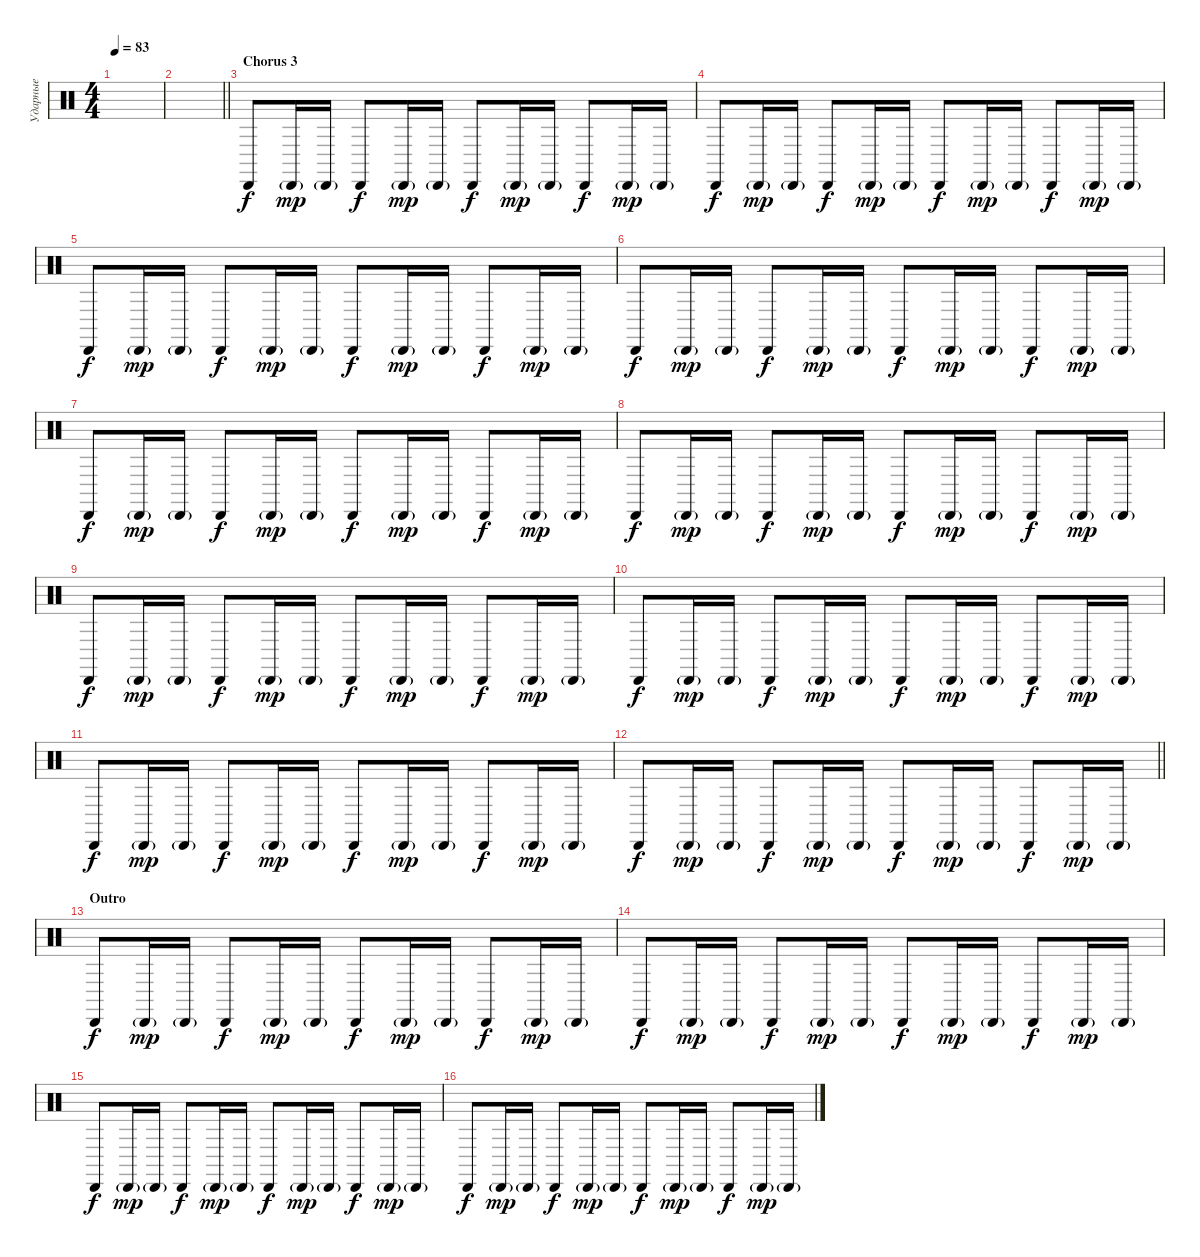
\track ("Ударные" "Ударные") {instrument percussion}
\staff {score}
\articulation defaults
\ts (4 4)
\tempo 83
\clef neutral
\ks c
|
\barLineRight lightlight
|
\section ("" "Chorus 3")
"Cabasa (hit)".8{dy f} "Cabasa (hit)"{g}.16{dy mp} "Cabasa (hit)"{g}.16 "Cabasa (hit)".8{dy f} "Cabasa (hit)"{g}.16{dy mp} "Cabasa (hit)"{g}.16 "Cabasa (hit)".8{dy f} "Cabasa (hit)"{g}.16{dy mp} "Cabasa (hit)"{g}.16 "Cabasa (hit)".8{dy f} "Cabasa (hit)"{g}.16{dy mp} "Cabasa (hit)"{g}.16 |
"Cabasa (hit)".8{dy f} "Cabasa (hit)"{g}.16{dy mp} "Cabasa (hit)"{g}.16 "Cabasa (hit)".8{dy f} "Cabasa (hit)"{g}.16{dy mp} "Cabasa (hit)"{g}.16 "Cabasa (hit)".8{dy f} "Cabasa (hit)"{g}.16{dy mp} "Cabasa (hit)"{g}.16 "Cabasa (hit)".8{dy f} "Cabasa (hit)"{g}.16{dy mp} "Cabasa (hit)"{g}.16 |
"Cabasa (hit)".8{dy f} "Cabasa (hit)"{g}.16{dy mp} "Cabasa (hit)"{g}.16 "Cabasa (hit)".8{dy f} "Cabasa (hit)"{g}.16{dy mp} "Cabasa (hit)"{g}.16 "Cabasa (hit)".8{dy f} "Cabasa (hit)"{g}.16{dy mp} "Cabasa (hit)"{g}.16 "Cabasa (hit)".8{dy f} "Cabasa (hit)"{g}.16{dy mp} "Cabasa (hit)"{g}.16 |
"Cabasa (hit)".8{dy f} "Cabasa (hit)"{g}.16{dy mp} "Cabasa (hit)"{g}.16 "Cabasa (hit)".8{dy f} "Cabasa (hit)"{g}.16{dy mp} "Cabasa (hit)"{g}.16 "Cabasa (hit)".8{dy f} "Cabasa (hit)"{g}.16{dy mp} "Cabasa (hit)"{g}.16 "Cabasa (hit)".8{dy f} "Cabasa (hit)"{g}.16{dy mp} "Cabasa (hit)"{g}.16 |
"Cabasa (hit)".8{dy f} "Cabasa (hit)"{g}.16{dy mp} "Cabasa (hit)"{g}.16 "Cabasa (hit)".8{dy f} "Cabasa (hit)"{g}.16{dy mp} "Cabasa (hit)"{g}.16 "Cabasa (hit)".8{dy f} "Cabasa (hit)"{g}.16{dy mp} "Cabasa (hit)"{g}.16 "Cabasa (hit)".8{dy f} "Cabasa (hit)"{g}.16{dy mp} "Cabasa (hit)"{g}.16 |
"Cabasa (hit)".8{dy f} "Cabasa (hit)"{g}.16{dy mp} "Cabasa (hit)"{g}.16 "Cabasa (hit)".8{dy f} "Cabasa (hit)"{g}.16{dy mp} "Cabasa (hit)"{g}.16 "Cabasa (hit)".8{dy f} "Cabasa (hit)"{g}.16{dy mp} "Cabasa (hit)"{g}.16 "Cabasa (hit)".8{dy f} "Cabasa (hit)"{g}.16{dy mp} "Cabasa (hit)"{g}.16 |
"Cabasa (hit)".8{dy f} "Cabasa (hit)"{g}.16{dy mp} "Cabasa (hit)"{g}.16 "Cabasa (hit)".8{dy f} "Cabasa (hit)"{g}.16{dy mp} "Cabasa (hit)"{g}.16 "Cabasa (hit)".8{dy f} "Cabasa (hit)"{g}.16{dy mp} "Cabasa (hit)"{g}.16 "Cabasa (hit)".8{dy f} "Cabasa (hit)"{g}.16{dy mp} "Cabasa (hit)"{g}.16 |
"Cabasa (hit)".8{dy f} "Cabasa (hit)"{g}.16{dy mp} "Cabasa (hit)"{g}.16 "Cabasa (hit)".8{dy f} "Cabasa (hit)"{g}.16{dy mp} "Cabasa (hit)"{g}.16 "Cabasa (hit)".8{dy f} "Cabasa (hit)"{g}.16{dy mp} "Cabasa (hit)"{g}.16 "Cabasa (hit)".8{dy f} "Cabasa (hit)"{g}.16{dy mp} "Cabasa (hit)"{g}.16 |
"Cabasa (hit)".8{dy f} "Cabasa (hit)"{g}.16{dy mp} "Cabasa (hit)"{g}.16 "Cabasa (hit)".8{dy f} "Cabasa (hit)"{g}.16{dy mp} "Cabasa (hit)"{g}.16 "Cabasa (hit)".8{dy f} "Cabasa (hit)"{g}.16{dy mp} "Cabasa (hit)"{g}.16 "Cabasa (hit)".8{dy f} "Cabasa (hit)"{g}.16{dy mp} "Cabasa (hit)"{g}.16 |
\barLineRight lightlight "Cabasa (hit)".8{dy f} "Cabasa (hit)"{g}.16{dy mp} "Cabasa (hit)"{g}.16 "Cabasa (hit)".8{dy f} "Cabasa (hit)"{g}.16{dy mp} "Cabasa (hit)"{g}.16 "Cabasa (hit)".8{dy f} "Cabasa (hit)"{g}.16{dy mp} "Cabasa (hit)"{g}.16 "Cabasa (hit)".8{dy f} "Cabasa (hit)"{g}.16{dy mp} "Cabasa (hit)"{g}.16
|
\section ("" "Outro")
"Cabasa (hit)".8{dy f} "Cabasa (hit)"{g}.16{dy mp} "Cabasa (hit)"{g}.16 "Cabasa (hit)".8{dy f} "Cabasa (hit)"{g}.16{dy mp} "Cabasa (hit)"{g}.16 "Cabasa (hit)".8{dy f} "Cabasa (hit)"{g}.16{dy mp} "Cabasa (hit)"{g}.16 "Cabasa (hit)".8{dy f} "Cabasa (hit)"{g}.16{dy mp} "Cabasa (hit)"{g}.16 |
"Cabasa (hit)".8{dy f} "Cabasa (hit)"{g}.16{dy mp} "Cabasa (hit)"{g}.16 "Cabasa (hit)".8{dy f} "Cabasa (hit)"{g}.16{dy mp} "Cabasa (hit)"{g}.16 "Cabasa (hit)".8{dy f} "Cabasa (hit)"{g}.16{dy mp} "Cabasa (hit)"{g}.16 "Cabasa (hit)".8{dy f} "Cabasa (hit)"{g}.16{dy mp} "Cabasa (hit)"{g}.16 |
"Cabasa (hit)".8{dy f} "Cabasa (hit)"{g}.16{dy mp} "Cabasa (hit)"{g}.16 "Cabasa (hit)".8{dy f} "Cabasa (hit)"{g}.16{dy mp} "Cabasa (hit)"{g}.16 "Cabasa (hit)".8{dy f} "Cabasa (hit)"{g}.16{dy mp} "Cabasa (hit)"{g}.16 "Cabasa (hit)".8{dy f} "Cabasa (hit)"{g}.16{dy mp} "Cabasa (hit)"{g}.16 |
"Cabasa (hit)".8{dy f} "Cabasa (hit)"{g}.16{dy mp} "Cabasa (hit)"{g}.16 "Cabasa (hit)".8{dy f} "Cabasa (hit)"{g}.16{dy mp} "Cabasa (hit)"{g}.16 "Cabasa (hit)".8{dy f} "Cabasa (hit)"{g}.16{dy mp} "Cabasa (hit)"{g}.16 "Cabasa (hit)".8{dy f} "Cabasa (hit)"{g}.16{dy mp} "Cabasa (hit)"{g}.16
